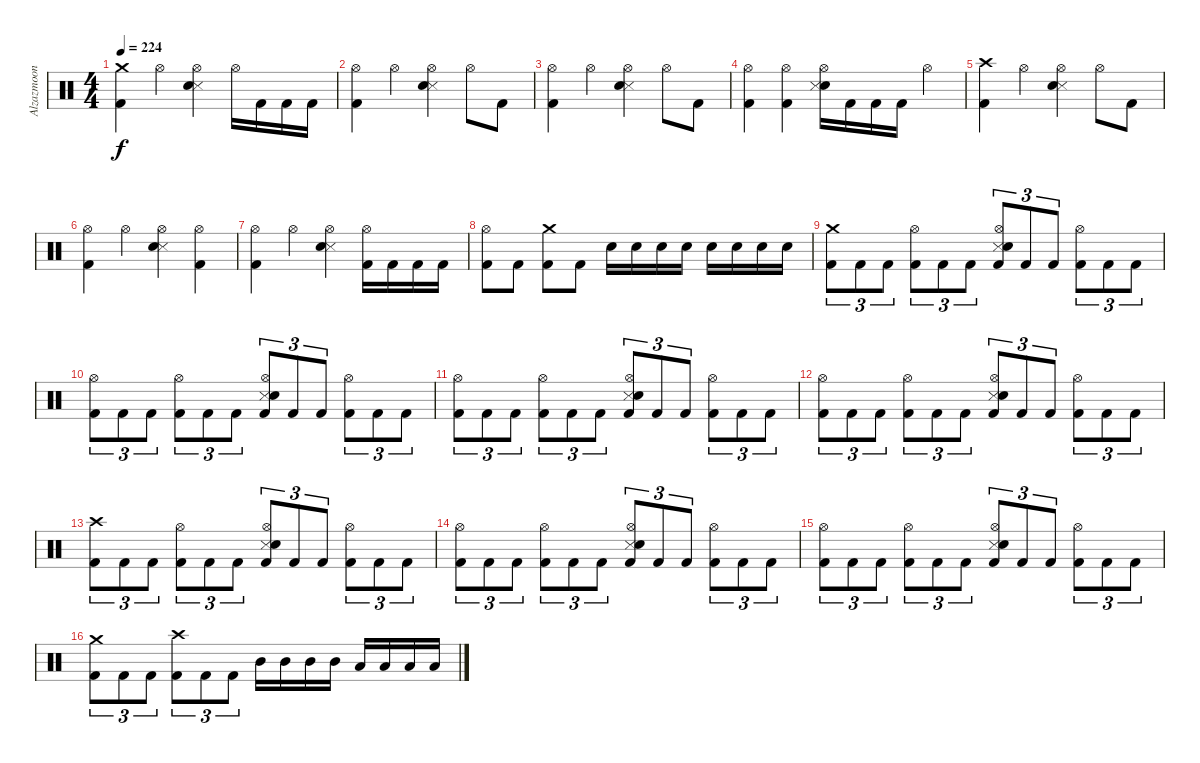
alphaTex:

\track ("Alzazmoon" "Alzazmoon") {instrument percussion}
\staff {score}
\articulation defaults
\ts (4 4)
\tempo 224
\clef neutral
\ks c
("Crash medium (hit)" "Kick (hit) 2").4{dy f} "Hi-Hat (open)".4 ("Hi-Hat (open)" "Snare (side stick) 3" "Snare (hit) 2").4 "Hi-Hat (open)".16 "Kick (hit) 2".16 "Kick (hit) 2".16 "Kick (hit) 2".16 |
("Hi-Hat (open)" "Kick (hit) 2").4 "Hi-Hat (open)".4 ("Hi-Hat (open)" "Snare (side stick) 3" "Snare (hit) 2").4 "Hi-Hat (open)".8 "Kick (hit) 2".8 |
("Hi-Hat (open)" "Kick (hit) 2").4 "Hi-Hat (open)".4 ("Hi-Hat (open)" "Snare (side stick) 3" "Snare (hit) 2").4 "Hi-Hat (open)".8 "Kick (hit) 2".8 |
("Hi-Hat (open)" "Kick (hit) 2").4 ("Hi-Hat (open)" "Kick (hit) 2").4 ("Hi-Hat (open)" "Snare (hit) 2" "Snare (side stick) 3").16 "Kick (hit) 2".16 "Kick (hit) 2".16 "Kick (hit) 2".16 "Hi-Hat (open)".4 |
("Crash high (hit)" "Kick (hit) 2").4 "Hi-Hat (open)".4 ("Hi-Hat (open)" "Snare (side stick) 3" "Snare (hit) 2").4 "Hi-Hat (open)".8 "Kick (hit) 2".8 |
("Hi-Hat (open)" "Kick (hit) 2").4 "Hi-Hat (open)".4 ("Hi-Hat (open)" "Snare (side stick) 3" "Snare (hit) 2").4 ("Hi-Hat (open)" "Kick (hit) 2").4 |
("Hi-Hat (open)" "Kick (hit) 2").4 "Hi-Hat (open)".4 ("Hi-Hat (open)" "Snare (side stick) 3" "Snare (hit) 2").4 ("Hi-Hat (open)" "Kick (hit) 2").16 "Kick (hit) 2".16 "Kick (hit) 2".16 "Kick (hit) 2".16 |
("Hi-Hat (open)" "Kick (hit) 2").8 "Kick (hit) 2".8 ("Crash medium (hit)" "Kick (hit) 2").8 "Kick (hit) 2".8 "Snare (hit) 2".16 "Snare (hit) 2".16 "Snare (hit) 2".16 "Snare (hit) 2".16 "Snare (hit) 2".16 "Snare (hit) 2".16 "Snare (hit) 2".16 "Snare (hit) 2".16 |
("Crash medium (hit)" "Kick (hit) 2").8{tu (3 2)} "Kick (hit) 2".8{tu (3 2)} "Kick (hit) 2".8{tu (3 2)} ("Hi-Hat (open)" "Kick (hit) 2").8{tu (3 2)} "Kick (hit) 2".8{tu (3 2)} "Kick (hit) 2".8{tu (3 2)} ("Hi-Hat (open)" "Snare (side stick) 3" "Snare (hit) 2" "Kick (hit) 2").8{tu (3 2)} "Kick (hit) 2".8{tu (3 2)} "Kick (hit) 2".8{tu (3 2)} ("Hi-Hat (open)" "Kick (hit) 2").8{tu (3 2)} "Kick (hit) 2".8{tu (3 2)} "Kick (hit) 2".8{tu (3 2)} |
("Hi-Hat (open)" "Kick (hit) 2").8{tu (3 2)} "Kick (hit) 2".8{tu (3 2)} "Kick (hit) 2".8{tu (3 2)} ("Hi-Hat (open)" "Kick (hit) 2").8{tu (3 2)} "Kick (hit) 2".8{tu (3 2)} "Kick (hit) 2".8{tu (3 2)} ("Hi-Hat (open)" "Snare (side stick) 3" "Snare (hit) 2" "Kick (hit) 2").8{tu (3 2)} "Kick (hit) 2".8{tu (3 2)} "Kick (hit) 2".8{tu (3 2)} ("Hi-Hat (open)" "Kick (hit) 2").8{tu (3 2)} "Kick (hit) 2".8{tu (3 2)} "Kick (hit) 2".8{tu (3 2)} |
("Hi-Hat (open)" "Kick (hit) 2").8{tu (3 2)} "Kick (hit) 2".8{tu (3 2)} "Kick (hit) 2".8{tu (3 2)} ("Hi-Hat (open)" "Kick (hit) 2").8{tu (3 2)} "Kick (hit) 2".8{tu (3 2)} "Kick (hit) 2".8{tu (3 2)} ("Hi-Hat (open)" "Snare (side stick) 3" "Snare (hit) 2" "Kick (hit) 2").8{tu (3 2)} "Kick (hit) 2".8{tu (3 2)} "Kick (hit) 2".8{tu (3 2)} ("Hi-Hat (open)" "Kick (hit) 2").8{tu (3 2)} "Kick (hit) 2".8{tu (3 2)} "Kick (hit) 2".8{tu (3 2)} |
("Hi-Hat (open)" "Kick (hit) 2").8{tu (3 2)} "Kick (hit) 2".8{tu (3 2)} "Kick (hit) 2".8{tu (3 2)} ("Hi-Hat (open)" "Kick (hit) 2").8{tu (3 2)} "Kick (hit) 2".8{tu (3 2)} "Kick (hit) 2".8{tu (3 2)} ("Hi-Hat (open)" "Snare (side stick) 3" "Snare (hit) 2" "Kick (hit) 2").8{tu (3 2)} "Kick (hit) 2".8{tu (3 2)} "Kick (hit) 2".8{tu (3 2)} ("Hi-Hat (open)" "Kick (hit) 2").8{tu (3 2)} "Kick (hit) 2".8{tu (3 2)} "Kick (hit) 2".8{tu (3 2)} |
("Crash high (hit)" "Kick (hit) 2").8{tu (3 2)} "Kick (hit) 2".8{tu (3 2)} "Kick (hit) 2".8{tu (3 2)} ("Hi-Hat (open)" "Kick (hit) 2").8{tu (3 2)} "Kick (hit) 2".8{tu (3 2)} "Kick (hit) 2".8{tu (3 2)} ("Hi-Hat (open)" "Snare (side stick) 3" "Snare (hit) 2" "Kick (hit) 2").8{tu (3 2)} "Kick (hit) 2".8{tu (3 2)} "Kick (hit) 2".8{tu (3 2)} ("Hi-Hat (open)" "Kick (hit) 2").8{tu (3 2)} "Kick (hit) 2".8{tu (3 2)} "Kick (hit) 2".8{tu (3 2)} |
("Hi-Hat (open)" "Kick (hit) 2").8{tu (3 2)} "Kick (hit) 2".8{tu (3 2)} "Kick (hit) 2".8{tu (3 2)} ("Hi-Hat (open)" "Kick (hit) 2").8{tu (3 2)} "Kick (hit) 2".8{tu (3 2)} "Kick (hit) 2".8{tu (3 2)} ("Hi-Hat (open)" "Snare (side stick) 3" "Snare (hit) 2" "Kick (hit) 2").8{tu (3 2)} "Kick (hit) 2".8{tu (3 2)} "Kick (hit) 2".8{tu (3 2)} ("Hi-Hat (open)" "Kick (hit) 2").8{tu (3 2)} "Kick (hit) 2".8{tu (3 2)} "Kick (hit) 2".8{tu (3 2)} |
("Hi-Hat (open)" "Kick (hit) 2").8{tu (3 2)} "Kick (hit) 2".8{tu (3 2)} "Kick (hit) 2".8{tu (3 2)} ("Hi-Hat (open)" "Kick (hit) 2").8{tu (3 2)} "Kick (hit) 2".8{tu (3 2)} "Kick (hit) 2".8{tu (3 2)} ("Hi-Hat (open)" "Snare (side stick) 3" "Snare (hit) 2" "Kick (hit) 2").8{tu (3 2)} "Kick (hit) 2".8{tu (3 2)} "Kick (hit) 2".8{tu (3 2)} ("Hi-Hat (open)" "Kick (hit) 2").8{tu (3 2)} "Kick (hit) 2".8{tu (3 2)} "Kick (hit) 2".8{tu (3 2)} |
("Crash medium (hit)" "Kick (hit) 2").8{tu (3 2)} "Kick (hit) 2".8{tu (3 2)} "Kick (hit) 2".8{tu (3 2)} ("Crash high (hit)" "Kick (hit) 2").8{tu (3 2)} "Kick (hit) 2".8{tu (3 2)} "Kick (hit) 2".8{tu (3 2)} "Mid Tom (hit)".16 "Mid Tom (hit)".16 "Mid Tom (hit)".16 "Mid Tom (hit)".16 "Low Tom (hit)".16 "Low Tom (hit)".16 "Low Tom (hit)".16 "Low Tom (hit)".16
